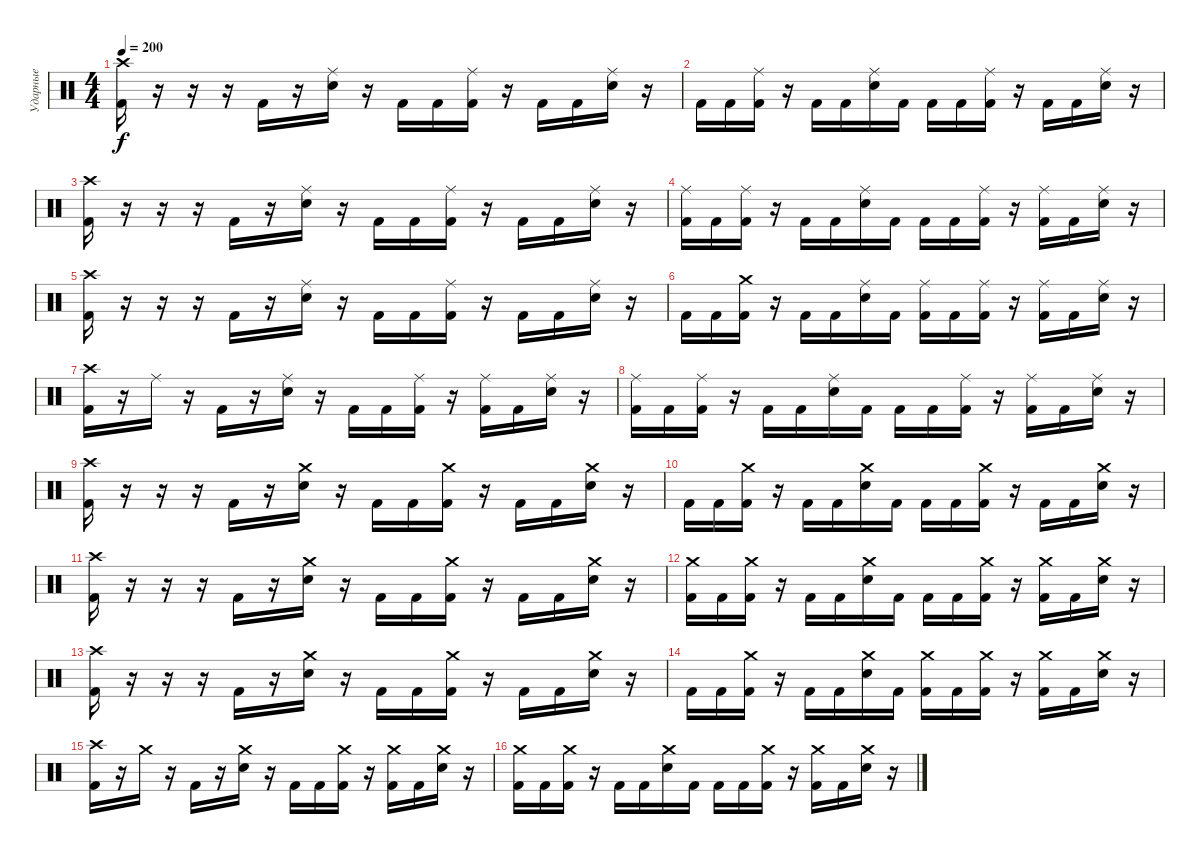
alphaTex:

\track ("Ударные" "Ударные") {instrument percussion}
\staff {score}
\articulation defaults
\ts (4 4)
\tempo 200
\clef neutral
\ks c
("Crash high (hit)" "Kick (hit) 2").16{dy f} r.16 r.16 r.16 "Kick (hit) 2".16 r.16 ("Ride (middle)" "Electric Snare (hit)").16 r.16 "Kick (hit) 2".16 "Kick (hit) 2".16 ("Ride (middle)" "Kick (hit) 2").16 r.16 "Kick (hit) 2".16 "Kick (hit) 2".16 ("Ride (middle)" "Electric Snare (hit)").16 r.16 |
"Kick (hit) 2".16 "Kick (hit) 2".16 ("Ride (middle)" "Kick (hit) 2").16 r.16 "Kick (hit) 2".16 "Kick (hit) 2".16 ("Ride (middle)" "Electric Snare (hit)").16 "Kick (hit) 2".16 "Kick (hit) 2".16 "Kick (hit) 2".16 ("Ride (middle)" "Kick (hit) 2").16 r.16 "Kick (hit) 2".16 "Kick (hit) 2".16 ("Ride (middle)" "Electric Snare (hit)").16 r.16 |
("Crash high (hit)" "Kick (hit) 2").16 r.16 r.16 r.16 "Kick (hit) 2".16 r.16 ("Ride (middle)" "Electric Snare (hit)").16 r.16 "Kick (hit) 2".16 "Kick (hit) 2".16 ("Ride (middle)" "Kick (hit) 2").16 r.16 "Kick (hit) 2".16 "Kick (hit) 2".16 ("Ride (middle)" "Electric Snare (hit)").16 r.16 |
("Ride (middle)" "Kick (hit) 2").16 "Kick (hit) 2".16 ("Ride (middle)" "Kick (hit) 2").16 r.16 "Kick (hit) 2".16 "Kick (hit) 2".16 ("Ride (middle)" "Electric Snare (hit)").16 "Kick (hit) 2".16 "Kick (hit) 2".16 "Kick (hit) 2".16 ("Ride (middle)" "Kick (hit) 2").16 r.16 ("Ride (middle)" "Kick (hit) 2").16 "Kick (hit) 2".16 ("Ride (middle)" "Electric Snare (hit)").16 r.16 |
("Crash high (hit)" "Kick (hit) 2").16 r.16 r.16 r.16 "Kick (hit) 2".16 r.16 ("Ride (middle)" "Electric Snare (hit)").16 r.16 "Kick (hit) 2".16 "Kick (hit) 2".16 ("Ride (middle)" "Kick (hit) 2").16 r.16 "Kick (hit) 2".16 "Kick (hit) 2".16 ("Ride (middle)" "Electric Snare (hit)").16 r.16 |
"Kick (hit) 2".16 "Kick (hit) 2".16 ("Crash medium (hit)" "Kick (hit) 2").16 r.16 "Kick (hit) 2".16 "Kick (hit) 2".16 ("Ride (middle)" "Electric Snare (hit)").16 "Kick (hit) 2".16 ("Ride (middle)" "Kick (hit) 2").16 "Kick (hit) 2".16 ("Ride (middle)" "Kick (hit) 2").16 r.16 ("Ride (middle)" "Kick (hit) 2").16 "Kick (hit) 2".16 ("Ride (middle)" "Electric Snare (hit)").16 r.16 |
("Crash high (hit)" "Kick (hit) 2").16 r.16 "Ride (middle)".16 r.16 "Kick (hit) 2".16 r.16 ("Ride (middle)" "Electric Snare (hit)").16 r.16 "Kick (hit) 2".16 "Kick (hit) 2".16 ("Ride (middle)" "Kick (hit) 2").16 r.16 ("Ride (middle)" "Kick (hit) 2").16 "Kick (hit) 2".16 ("Ride (middle)" "Electric Snare (hit)").16 r.16 |
("Ride (middle)" "Kick (hit) 2").16 "Kick (hit) 2".16 ("Ride (middle)" "Kick (hit) 2").16 r.16 "Kick (hit) 2".16 "Kick (hit) 2".16 ("Ride (middle)" "Electric Snare (hit)").16 "Kick (hit) 2".16 "Kick (hit) 2".16 "Kick (hit) 2".16 ("Ride (middle)" "Kick (hit) 2").16 r.16 ("Ride (middle)" "Kick (hit) 2").16 "Kick (hit) 2".16 ("Ride (middle)" "Electric Snare (hit)").16 r.16 |
("Crash high (hit)" "Kick (hit) 2").16 r.16 r.16 r.16 "Kick (hit) 2".16 r.16 ("Crash medium (hit)" "Electric Snare (hit)").16 r.16 "Kick (hit) 2".16 "Kick (hit) 2".16 ("Crash medium (hit)" "Kick (hit) 2").16 r.16 "Kick (hit) 2".16 "Kick (hit) 2".16 ("Crash medium (hit)" "Electric Snare (hit)").16 r.16 |
"Kick (hit) 2".16 "Kick (hit) 2".16 ("Crash medium (hit)" "Kick (hit) 2").16 r.16 "Kick (hit) 2".16 "Kick (hit) 2".16 ("Crash medium (hit)" "Electric Snare (hit)").16 "Kick (hit) 2".16 "Kick (hit) 2".16 "Kick (hit) 2".16 ("Crash medium (hit)" "Kick (hit) 2").16 r.16 "Kick (hit) 2".16 "Kick (hit) 2".16 ("Crash medium (hit)" "Electric Snare (hit)").16 r.16 |
("Crash high (hit)" "Kick (hit) 2").16 r.16 r.16 r.16 "Kick (hit) 2".16 r.16 ("Crash medium (hit)" "Electric Snare (hit)").16 r.16 "Kick (hit) 2".16 "Kick (hit) 2".16 ("Crash medium (hit)" "Kick (hit) 2").16 r.16 "Kick (hit) 2".16 "Kick (hit) 2".16 ("Crash medium (hit)" "Electric Snare (hit)").16 r.16 |
("Crash medium (hit)" "Kick (hit) 2").16 "Kick (hit) 2".16 ("Crash medium (hit)" "Kick (hit) 2").16 r.16 "Kick (hit) 2".16 "Kick (hit) 2".16 ("Crash medium (hit)" "Electric Snare (hit)").16 "Kick (hit) 2".16 "Kick (hit) 2".16 "Kick (hit) 2".16 ("Crash medium (hit)" "Kick (hit) 2").16 r.16 ("Crash medium (hit)" "Kick (hit) 2").16 "Kick (hit) 2".16 ("Crash medium (hit)" "Electric Snare (hit)").16 r.16 |
("Crash high (hit)" "Kick (hit) 2").16 r.16 r.16 r.16 "Kick (hit) 2".16 r.16 ("Crash medium (hit)" "Electric Snare (hit)").16 r.16 "Kick (hit) 2".16 "Kick (hit) 2".16 ("Crash medium (hit)" "Kick (hit) 2").16 r.16 "Kick (hit) 2".16 "Kick (hit) 2".16 ("Crash medium (hit)" "Electric Snare (hit)").16 r.16 |
"Kick (hit) 2".16 "Kick (hit) 2".16 ("Crash medium (hit)" "Kick (hit) 2").16 r.16 "Kick (hit) 2".16 "Kick (hit) 2".16 ("Crash medium (hit)" "Electric Snare (hit)").16 "Kick (hit) 2".16 ("Crash medium (hit)" "Kick (hit) 2").16 "Kick (hit) 2".16 ("Crash medium (hit)" "Kick (hit) 2").16 r.16 ("Crash medium (hit)" "Kick (hit) 2").16 "Kick (hit) 2".16 ("Crash medium (hit)" "Electric Snare (hit)").16 r.16 |
("Crash high (hit)" "Kick (hit) 2").16 r.16 "Crash medium (hit)".16 r.16 "Kick (hit) 2".16 r.16 ("Crash medium (hit)" "Electric Snare (hit)").16 r.16 "Kick (hit) 2".16 "Kick (hit) 2".16 ("Crash medium (hit)" "Kick (hit) 2").16 r.16 ("Crash medium (hit)" "Kick (hit) 2").16 "Kick (hit) 2".16 ("Crash medium (hit)" "Electric Snare (hit)").16 r.16 |
("Crash medium (hit)" "Kick (hit) 2").16 "Kick (hit) 2".16 ("Crash medium (hit)" "Kick (hit) 2").16 r.16 "Kick (hit) 2".16 "Kick (hit) 2".16 ("Crash medium (hit)" "Electric Snare (hit)").16 "Kick (hit) 2".16 "Kick (hit) 2".16 "Kick (hit) 2".16 ("Crash medium (hit)" "Kick (hit) 2").16 r.16 ("Crash medium (hit)" "Kick (hit) 2").16 "Kick (hit) 2".16 ("Crash medium (hit)" "Electric Snare (hit)").16 r.16
